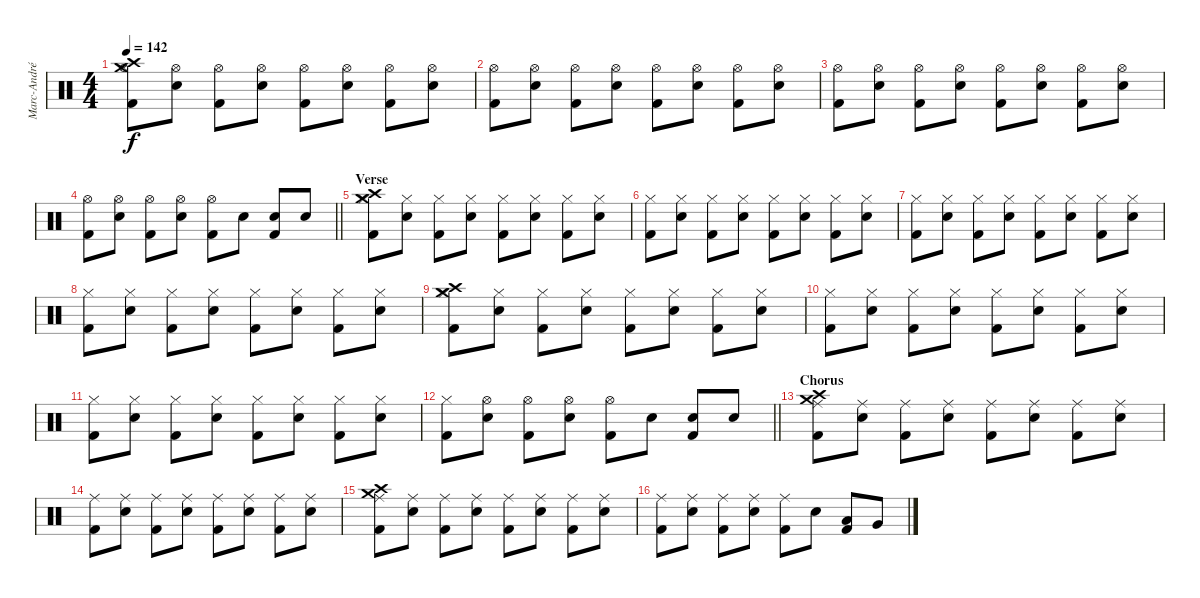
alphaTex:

\track ("Marc-André Barabé" "Marc-André") {instrument percussion}
\staff {score}
\articulation defaults
\ts (4 4)
\tempo 142
\clef neutral
\ks c
("Crash high (hit)" "Crash medium (hit)" "Hi-Hat (open)" "Kick (hit) 2").8{dy f} ("Hi-Hat (open)" "Electric Snare (hit)").8 ("Hi-Hat (open)" "Kick (hit) 2"{tr (2 32)}).8 ("Hi-Hat (open)" "Electric Snare (hit)").8 ("Hi-Hat (open)" "Kick (hit) 2").8 ("Hi-Hat (open)" "Electric Snare (hit)").8 ("Hi-Hat (open)" "Kick (hit) 2"{tr (2 32)}).8 ("Hi-Hat (open)" "Electric Snare (hit)").8 |
("Hi-Hat (open)" "Kick (hit) 2").8 ("Hi-Hat (open)" "Electric Snare (hit)").8 ("Hi-Hat (open)" "Kick (hit) 2"{tr (2 32)}).8 ("Hi-Hat (open)" "Electric Snare (hit)").8 ("Hi-Hat (open)" "Kick (hit) 2").8 ("Hi-Hat (open)" "Electric Snare (hit)").8 ("Hi-Hat (open)" "Kick (hit) 2"{tr (2 32)}).8 ("Hi-Hat (open)" "Electric Snare (hit)").8 |
("Hi-Hat (open)" "Kick (hit) 2").8 ("Hi-Hat (open)" "Electric Snare (hit)").8 ("Hi-Hat (open)" "Kick (hit) 2"{tr (2 32)}).8 ("Hi-Hat (open)" "Electric Snare (hit)").8 ("Hi-Hat (open)" "Kick (hit) 2").8 ("Hi-Hat (open)" "Electric Snare (hit)").8 ("Hi-Hat (open)" "Kick (hit) 2"{tr (2 32)}).8 ("Hi-Hat (open)" "Electric Snare (hit)").8 |
\barLineRight lightlight
("Hi-Hat (open)" "Kick (hit) 2").8 ("Hi-Hat (open)" "Electric Snare (hit)").8 ("Hi-Hat (open)" "Kick (hit) 2"{tr (2 32)}).8 ("Hi-Hat (open)" "Electric Snare (hit)").8 ("Hi-Hat (open)" "Kick (hit) 2").8 "Electric Snare (hit)".8 ("Electric Snare (hit)"{tr (4 32)} "Kick (hit) 2"{tr (2 32)}).8 "Electric Snare (hit)"{tr (4 32)}.8 |
\section ("" "Verse")
("Crash high (hit)" "Crash medium (hit)" "Hi-Hat (closed)" "Kick (hit) 2").8 ("Hi-Hat (closed)" "Electric Snare (hit)").8 ("Hi-Hat (closed)" "Kick (hit) 2"{tr (2 32)}).8 ("Hi-Hat (closed)" "Electric Snare (hit)").8 ("Hi-Hat (closed)" "Kick (hit) 2").8 ("Hi-Hat (closed)" "Electric Snare (hit)").8 ("Hi-Hat (closed)" "Kick (hit) 2"{tr (2 32)}).8 ("Hi-Hat (closed)" "Electric Snare (hit)").8 |
("Hi-Hat (closed)" "Kick (hit) 2").8 ("Hi-Hat (closed)" "Electric Snare (hit)").8 ("Hi-Hat (closed)" "Kick (hit) 2"{tr (2 32)}).8 ("Hi-Hat (closed)" "Electric Snare (hit)").8 ("Hi-Hat (closed)" "Kick (hit) 2").8 ("Hi-Hat (closed)" "Electric Snare (hit)").8 ("Hi-Hat (closed)" "Kick (hit) 2"{tr (2 32)}).8 ("Hi-Hat (closed)" "Electric Snare (hit)").8 |
("Hi-Hat (closed)" "Kick (hit) 2").8 ("Hi-Hat (closed)" "Electric Snare (hit)").8 ("Hi-Hat (closed)" "Kick (hit) 2"{tr (2 32)}).8 ("Hi-Hat (closed)" "Electric Snare (hit)").8 ("Hi-Hat (closed)" "Kick (hit) 2").8 ("Hi-Hat (closed)" "Electric Snare (hit)").8 ("Hi-Hat (closed)" "Kick (hit) 2"{tr (2 32)}).8 ("Hi-Hat (closed)" "Electric Snare (hit)").8 |
("Hi-Hat (closed)" "Kick (hit) 2").8 ("Hi-Hat (closed)" "Electric Snare (hit)").8 ("Hi-Hat (closed)" "Kick (hit) 2"{tr (2 32)}).8 ("Hi-Hat (closed)" "Electric Snare (hit)").8 ("Hi-Hat (closed)" "Kick (hit) 2").8 ("Hi-Hat (closed)" "Electric Snare (hit)").8 ("Hi-Hat (closed)" "Kick (hit) 2"{tr (2 32)}).8 ("Hi-Hat (closed)" "Electric Snare (hit)").8 |
("Crash high (hit)" "Crash medium (hit)" "Hi-Hat (closed)" "Kick (hit) 2").8 ("Hi-Hat (closed)" "Electric Snare (hit)").8 ("Hi-Hat (closed)" "Kick (hit) 2"{tr (2 32)}).8 ("Hi-Hat (closed)" "Electric Snare (hit)").8 ("Hi-Hat (closed)" "Kick (hit) 2").8 ("Hi-Hat (closed)" "Electric Snare (hit)").8 ("Hi-Hat (closed)" "Kick (hit) 2"{tr (2 32)}).8 ("Hi-Hat (closed)" "Electric Snare (hit)").8 |
("Hi-Hat (closed)" "Kick (hit) 2").8 ("Hi-Hat (closed)" "Electric Snare (hit)").8 ("Hi-Hat (closed)" "Kick (hit) 2"{tr (2 32)}).8 ("Hi-Hat (closed)" "Electric Snare (hit)").8 ("Hi-Hat (closed)" "Kick (hit) 2").8 ("Hi-Hat (closed)" "Electric Snare (hit)").8 ("Hi-Hat (closed)" "Kick (hit) 2"{tr (2 32)}).8 ("Hi-Hat (closed)" "Electric Snare (hit)").8 |
("Hi-Hat (closed)" "Kick (hit) 2").8 ("Hi-Hat (closed)" "Electric Snare (hit)").8 ("Hi-Hat (closed)" "Kick (hit) 2"{tr (2 32)}).8 ("Hi-Hat (closed)" "Electric Snare (hit)").8 ("Hi-Hat (closed)" "Kick (hit) 2").8 ("Hi-Hat (closed)" "Electric Snare (hit)").8 ("Hi-Hat (closed)" "Kick (hit) 2"{tr (2 32)}).8 ("Hi-Hat (closed)" "Electric Snare (hit)").8 |
\barLineRight lightlight
("Hi-Hat (closed)" "Kick (hit) 2").8 ("Hi-Hat (open)" "Electric Snare (hit)").8 ("Hi-Hat (open)" "Kick (hit) 2"{tr (2 32)}).8 ("Hi-Hat (open)" "Electric Snare (hit)").8 ("Hi-Hat (open)" "Kick (hit) 2").8 "Electric Snare (hit)"{tr (4 32)}.8 ("Electric Snare (hit)"{tr (4 32)} "Kick (hit) 2"{tr (2 32)}).8 "Electric Snare (hit)"{tr (4 32)}.8 |
\section ("" "Chorus")
("Crash high (hit)" "Crash medium (hit)" "Ride (middle)" "Kick (hit) 2").8 ("Ride (middle)" "Electric Snare (hit)").8 ("Ride (middle)" "Kick (hit) 2"{tr (2 32)}).8 ("Ride (middle)" "Electric Snare (hit)").8 ("Ride (middle)" "Kick (hit) 2").8 ("Ride (middle)" "Electric Snare (hit)").8 ("Ride (middle)" "Kick (hit) 2"{tr (2 32)}).8 ("Ride (middle)" "Electric Snare (hit)").8 |
("Ride (middle)" "Kick (hit) 2").8 ("Ride (middle)" "Electric Snare (hit)").8 ("Ride (middle)" "Kick (hit) 2"{tr (2 32)}).8 ("Ride (middle)" "Electric Snare (hit)").8 ("Ride (middle)" "Kick (hit) 2").8 ("Ride (middle)" "Electric Snare (hit)").8 ("Ride (middle)" "Kick (hit) 2"{tr (2 32)}).8 ("Ride (middle)" "Electric Snare (hit)").8 |
("Crash high (hit)" "Crash medium (hit)" "Ride (middle)" "Kick (hit) 2").8 ("Ride (middle)" "Electric Snare (hit)").8 ("Ride (middle)" "Kick (hit) 2"{tr (2 32)}).8 ("Ride (middle)" "Electric Snare (hit)").8 ("Ride (middle)" "Kick (hit) 2").8 ("Ride (middle)" "Electric Snare (hit)").8 ("Ride (middle)" "Kick (hit) 2"{tr (2 32)}).8 ("Ride (middle)" "Electric Snare (hit)").8 |
("Ride (middle)" "Kick (hit) 2").8 ("Ride (middle)" "Electric Snare (hit)").8 ("Ride (middle)" "Kick (hit) 2"{tr (2 32)}).8 ("Ride (middle)" "Electric Snare (hit)").8 ("Ride (middle)" "Kick (hit) 2").8 "Electric Snare (hit)"{tr (4 32)}.8 ("Low Tom (hit)"{tr (4 32)} "Kick (hit) 2"{tr (2 32)}).8 "Very Low Tom (hit)"{tr (4 32)}.8
